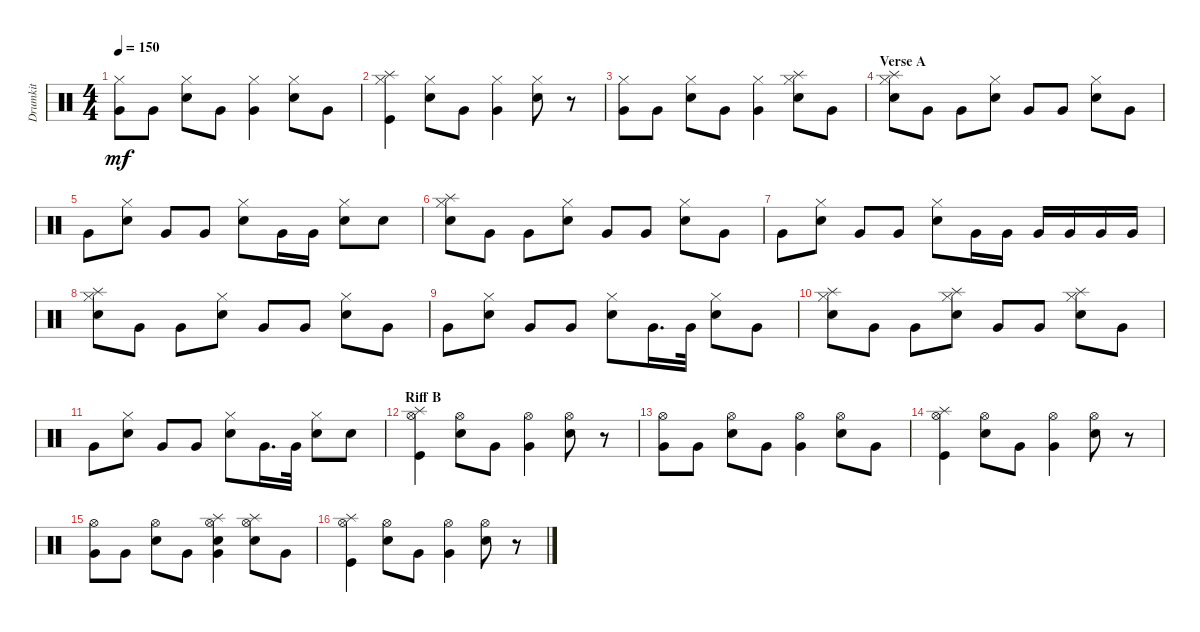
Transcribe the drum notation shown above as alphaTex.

\track ("Drumkit" "Drumkit") {instrument percussion}
\staff {score}
\articulation defaults
\ts (4 4)
\tempo 150
\clef neutral
\ks c
("Hi-Hat (closed)" "Very Low Tom (hit)").8{dy mf} "Very Low Tom (hit)".8 ("Snare (hit) 2" "Hi-Hat (closed)").8 "Very Low Tom (hit)".8 ("Very Low Tom (hit)" "Hi-Hat (closed)").4 ("Snare (hit) 2" "Hi-Hat (closed)").8 "Very Low Tom (hit)".8 |
("Splash (hit)" "Kick (hit)" "Hi-Hat (closed)").4 ("Snare (hit) 2" "Hi-Hat (closed)").8 "Very Low Tom (hit)".8 ("Very Low Tom (hit)" "Hi-Hat (closed)").4 ("Snare (hit) 2" "Hi-Hat (closed)").8 r.8 |
("Hi-Hat (closed)" "Very Low Tom (hit)").8 "Very Low Tom (hit)".8 ("Snare (hit) 2" "Hi-Hat (closed)").8 "Very Low Tom (hit)".8 ("Very Low Tom (hit)" "Hi-Hat (closed)").4 ("Snare (hit) 2" "Hi-Hat (closed)" "Splash (hit)").8 "Very Low Tom (hit)".8 |
\section ("" "Verse A")
("Snare (hit) 2" "Splash (hit)" "Hi-Hat (closed)").8 "Very Low Tom (hit)".8 "Very Low Tom (hit)".8 ("Snare (hit) 2" "Hi-Hat (closed)").8 "Very Low Tom (hit)".8 "Very Low Tom (hit)".8 ("Snare (hit) 2" "Hi-Hat (closed)").8 "Very Low Tom (hit)".8 |
"Very Low Tom (hit)".8 ("Snare (hit) 2" "Hi-Hat (closed)").8 "Very Low Tom (hit)".8 "Very Low Tom (hit)".8 ("Snare (hit) 2" "Hi-Hat (closed)").8 "Very Low Tom (hit)".16 "Very Low Tom (hit)".16 ("Snare (hit) 2" "Hi-Hat (closed)").8 "Snare (hit) 2".8 |
("Snare (hit) 2" "Splash (hit)" "Hi-Hat (closed)").8 "Very Low Tom (hit)".8 "Very Low Tom (hit)".8 ("Snare (hit) 2" "Hi-Hat (closed)").8 "Very Low Tom (hit)".8 "Very Low Tom (hit)".8 ("Snare (hit) 2" "Hi-Hat (closed)").8 "Very Low Tom (hit)".8 |
"Very Low Tom (hit)".8 ("Snare (hit) 2" "Hi-Hat (closed)").8 "Very Low Tom (hit)".8 "Very Low Tom (hit)".8 ("Snare (hit) 2" "Hi-Hat (closed)").8 "Very Low Tom (hit)".16 "Very Low Tom (hit)".16 "Very Low Tom (hit)".16 "Very Low Tom (hit)".16 "Very Low Tom (hit)".16 "Very Low Tom (hit)".16 |
("Snare (hit) 2" "Splash (hit)" "Hi-Hat (closed)").8 "Very Low Tom (hit)".8 "Very Low Tom (hit)".8 ("Snare (hit) 2" "Hi-Hat (closed)").8 "Very Low Tom (hit)".8 "Very Low Tom (hit)".8 ("Snare (hit) 2" "Hi-Hat (closed)").8 "Very Low Tom (hit)".8 |
"Very Low Tom (hit)".8 ("Snare (hit) 2" "Hi-Hat (closed)").8 "Very Low Tom (hit)".8 "Very Low Tom (hit)".8 ("Snare (hit) 2" "Hi-Hat (closed)").8 "Very Low Tom (hit)".16{d} "Very Low Tom (hit)".32 ("Snare (hit) 2" "Hi-Hat (closed)").8 "Very Low Tom (hit)".8 |
("Snare (hit) 2" "Splash (hit)" "Hi-Hat (closed)").8 "Very Low Tom (hit)".8 "Very Low Tom (hit)".8 ("Snare (hit) 2" "Hi-Hat (closed)" "Splash (hit)").8 "Very Low Tom (hit)".8 "Very Low Tom (hit)".8 ("Snare (hit) 2" "Hi-Hat (closed)" "Splash (hit)").8 "Very Low Tom (hit)".8 |
"Very Low Tom (hit)".8 ("Snare (hit) 2" "Hi-Hat (closed)").8 "Very Low Tom (hit)".8 "Very Low Tom (hit)".8 ("Snare (hit) 2" "Hi-Hat (closed)").8 "Very Low Tom (hit)".16{d} "Very Low Tom (hit)".32 ("Snare (hit) 2" "Hi-Hat (closed)").8 "Snare (hit) 2".8 |
\section ("" "Riff B")
("Splash (hit)" "Kick (hit)" "Hi-Hat (open)").4 ("Snare (hit) 2" "Hi-Hat (open)").8 "Very Low Tom (hit)".8 ("Very Low Tom (hit)" "Hi-Hat (open)").4 ("Snare (hit) 2" "Hi-Hat (open)").8 r.8 |
("Very Low Tom (hit)" "Hi-Hat (open)").8 "Very Low Tom (hit)".8 ("Snare (hit) 2" "Hi-Hat (open)").8 "Very Low Tom (hit)".8 ("Very Low Tom (hit)" "Hi-Hat (open)").4 ("Snare (hit) 2" "Hi-Hat (open)").8 "Very Low Tom (hit)".8 |
("Splash (hit)" "Kick (hit)" "Hi-Hat (open)").4 ("Snare (hit) 2" "Hi-Hat (open)").8 "Very Low Tom (hit)".8 ("Very Low Tom (hit)" "Hi-Hat (open)").4 ("Snare (hit) 2" "Hi-Hat (open)").8 r.8 |
("Very Low Tom (hit)" "Hi-Hat (open)").8 "Very Low Tom (hit)".8 ("Snare (hit) 2" "Hi-Hat (open)").8 "Very Low Tom (hit)".8 ("Very Low Tom (hit)" "Hi-Hat (open)" "Snare (hit) 2" "Splash (hit)").4 ("Snare (hit) 2" "Hi-Hat (open)" "Splash (hit)").8 "Very Low Tom (hit)".8 |
("Splash (hit)" "Kick (hit)" "Hi-Hat (open)").4 ("Snare (hit) 2" "Hi-Hat (open)").8 "Very Low Tom (hit)".8 ("Very Low Tom (hit)" "Hi-Hat (open)").4 ("Snare (hit) 2" "Hi-Hat (open)").8 r.8
